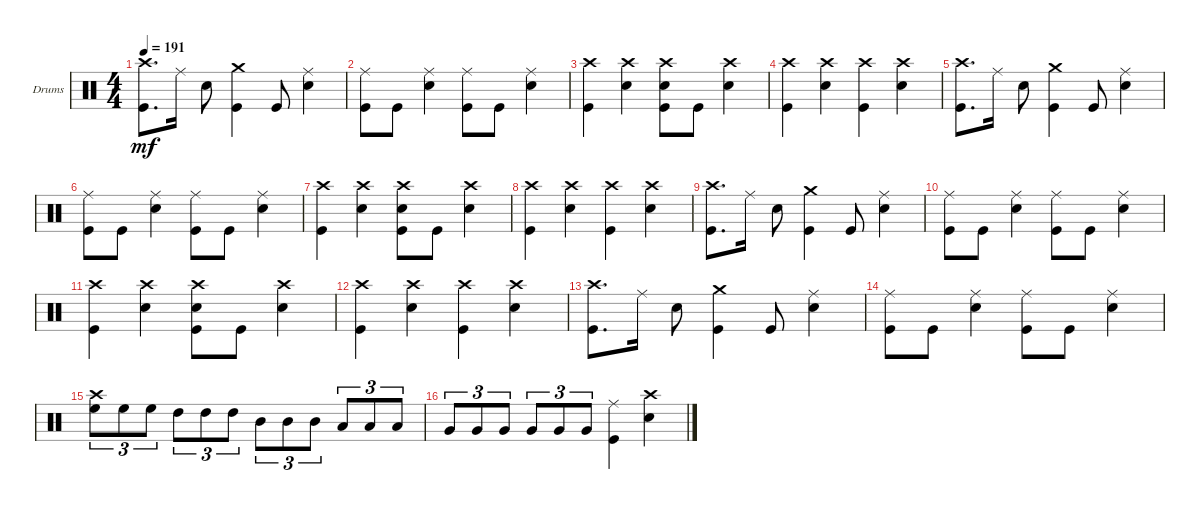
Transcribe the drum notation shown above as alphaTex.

\defaultSystemsLayout 4
\bracketExtendMode groupsimilarinstruments
\firstSystemTrackNameOrientation horizontal
\otherSystemsTrackNameOrientation horizontal
\track ("Drumkit" "Drums") {instrument percussion}
\staff {score}
\articulation defaults
\ts (4 4)
\tempo 191
\clef neutral
\scale
0.333333
\ks c
("Crash high (hit)" "Kick (hit)").8{d dy mf} "Ride (middle)".16 "Snare (hit) 2".8 ("Kick (hit)" "Crash medium (hit)").4 "Kick (hit)".8 ("Snare (hit) 2" "Ride (middle)").4 |
\scale
0.333333 ("Kick (hit)" "Ride (middle)").8 "Kick (hit)".8 ("Snare (hit) 2" "Ride (middle)").4 ("Kick (hit)" "Ride (middle)").8 "Kick (hit)".8 ("Snare (hit) 2" "Ride (middle)").4 |
\scale
0.333333 ("Kick (hit)" "Crash high (hit)").4 ("Snare (hit) 2" "Crash high (hit)").4 ("Kick (hit)" "Snare (hit) 2" "Crash high (hit)").8 "Kick (hit)".8 ("Snare (hit) 2" "Crash high (hit)").4 |
\scale
0.333333 ("Kick (hit)" "Crash high (hit)").4 ("Snare (hit) 2" "Crash high (hit)").4 ("Kick (hit)" "Crash high (hit)").4 ("Snare (hit) 2" "Crash high (hit)").4 |
\scale
0.333333 ("Crash high (hit)" "Kick (hit)").8{d} "Ride (middle)".16 "Snare (hit) 2".8 ("Kick (hit)" "Crash medium (hit)").4 "Kick (hit)".8 ("Snare (hit) 2" "Ride (middle)").4 |
\scale
0.333333 ("Kick (hit)" "Ride (middle)").8 "Kick (hit)".8 ("Snare (hit) 2" "Ride (middle)").4 ("Kick (hit)" "Ride (middle)").8 "Kick (hit)".8 ("Snare (hit) 2" "Ride (middle)").4 |
\scale
0.333333 ("Kick (hit)" "Crash high (hit)").4 ("Snare (hit) 2" "Crash high (hit)").4 ("Kick (hit)" "Snare (hit) 2" "Crash high (hit)").8 "Kick (hit)".8 ("Snare (hit) 2" "Crash high (hit)").4 |
\scale
0.333333 ("Kick (hit)" "Crash high (hit)").4 ("Snare (hit) 2" "Crash high (hit)").4 ("Kick (hit)" "Crash high (hit)").4 ("Snare (hit) 2" "Crash high (hit)").4 |
\scale
0.333333 ("Crash high (hit)" "Kick (hit)").8{d} "Ride (middle)".16 "Snare (hit) 2".8 ("Kick (hit)" "Crash medium (hit)").4 "Kick (hit)".8 ("Snare (hit) 2" "Ride (middle)").4 |
\scale
0.333333 ("Kick (hit)" "Ride (middle)").8 "Kick (hit)".8 ("Snare (hit) 2" "Ride (middle)").4 ("Kick (hit)" "Ride (middle)").8 "Kick (hit)".8 ("Snare (hit) 2" "Ride (middle)").4 |
\scale
0.333333 ("Kick (hit)" "Crash high (hit)").4 ("Snare (hit) 2" "Crash high (hit)").4 ("Kick (hit)" "Snare (hit) 2" "Crash high (hit)").8 "Kick (hit)".8 ("Snare (hit) 2" "Crash high (hit)").4 |
\scale
0.333333 ("Kick (hit)" "Crash high (hit)").4 ("Snare (hit) 2" "Crash high (hit)").4 ("Kick (hit)" "Crash high (hit)").4 ("Snare (hit) 2" "Crash high (hit)").4 |
\scale
0.333333 ("Crash high (hit)" "Kick (hit)").8{d} "Ride (middle)".16 "Snare (hit) 2".8 ("Kick (hit)" "Crash medium (hit)").4 "Kick (hit)".8 ("Snare (hit) 2" "Ride (middle)").4 |
\scale
0.333333 ("Kick (hit)" "Ride (middle)").8 "Kick (hit)".8 ("Snare (hit) 2" "Ride (middle)").4 ("Kick (hit)" "Ride (middle)").8 "Kick (hit)".8 ("Snare (hit) 2" "Ride (middle)").4 |
\scale
0.333333 ("Crash high (hit)" "High Floor Tom (hit)").8{tu (3 2)} "High Floor Tom (hit)".8{tu (3 2)} "High Floor Tom (hit)".8{tu (3 2)} "High Tom (hit)".8{tu (3 2)} "High Tom (hit)".8{tu (3 2)} "High Tom (hit)".8{tu (3 2)} "Mid Tom (hit)".8{tu (3 2)} "Mid Tom (hit)".8{tu (3 2)} "Mid Tom (hit)".8{tu (3 2)} "Low Tom (hit)".8{tu (3 2)} "Low Tom (hit)".8{tu (3 2)} "Low Tom (hit)".8{tu (3 2)} |
\scale
0.333333 "Very Low Tom (hit)".8{tu (3 2)} "Very Low Tom (hit)".8{tu (3 2)} "Very Low Tom (hit)".8{tu (3 2)} "Very Low Tom (hit)".8{tu (3 2)} "Very Low Tom (hit)".8{tu (3 2)} "Very Low Tom (hit)".8{tu (3 2)} ("Kick (hit)" "Ride (middle)").4 ("Snare (hit) 2" "Crash high (hit)").4
